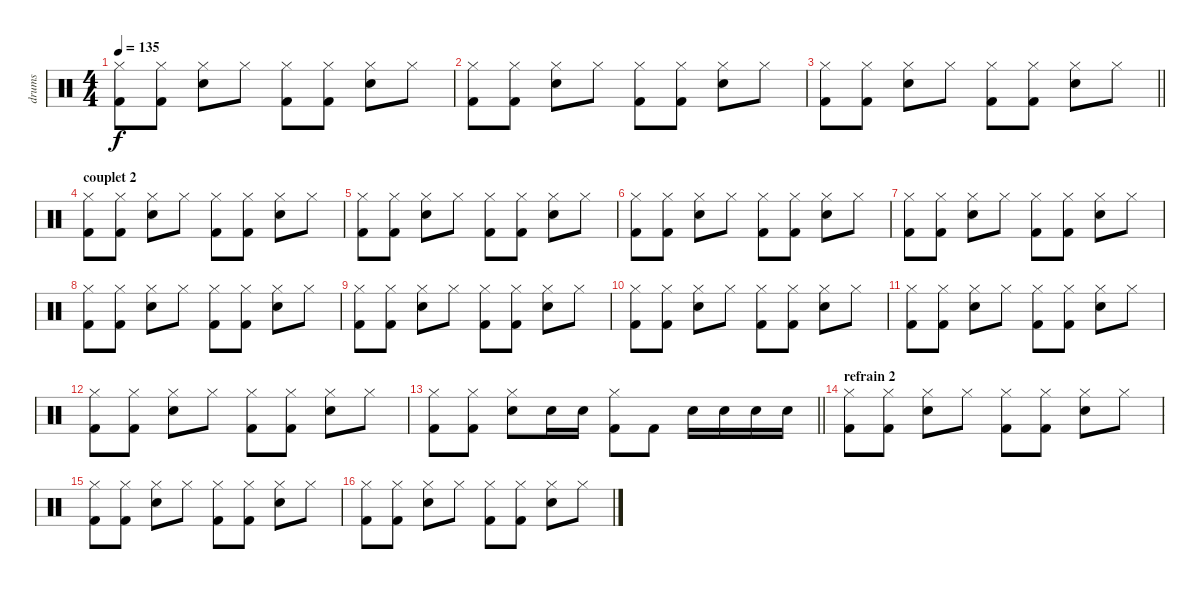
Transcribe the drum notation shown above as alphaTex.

\track ("drums" "drums") {instrument percussion}
\staff {score}
\articulation defaults
\ts (4 4)
\tempo 135
\clef neutral
\ks c
("Hi-Hat (closed)" "Kick (hit) 2").8{dy f} ("Hi-Hat (closed)" "Kick (hit) 2").8 ("Hi-Hat (closed)" "Electric Snare (hit)").8 "Hi-Hat (closed)".8 ("Hi-Hat (closed)" "Kick (hit) 2").8 ("Hi-Hat (closed)" "Kick (hit) 2").8 ("Hi-Hat (closed)" "Electric Snare (hit)").8 "Hi-Hat (closed)".8 |
("Hi-Hat (closed)" "Kick (hit) 2").8 ("Hi-Hat (closed)" "Kick (hit) 2").8 ("Hi-Hat (closed)" "Electric Snare (hit)").8 "Hi-Hat (closed)".8 ("Hi-Hat (closed)" "Kick (hit) 2").8 ("Hi-Hat (closed)" "Kick (hit) 2").8 ("Hi-Hat (closed)" "Electric Snare (hit)").8 "Hi-Hat (closed)".8 |
\barLineRight lightlight
("Hi-Hat (closed)" "Kick (hit) 2").8 ("Hi-Hat (closed)" "Kick (hit) 2").8 ("Hi-Hat (closed)" "Electric Snare (hit)").8 "Hi-Hat (closed)".8 ("Hi-Hat (closed)" "Kick (hit) 2").8 ("Hi-Hat (closed)" "Kick (hit) 2").8 ("Hi-Hat (closed)" "Electric Snare (hit)").8 "Hi-Hat (closed)".8 |
\section ("" "couplet 2")
("Hi-Hat (closed)" "Kick (hit) 2").8 ("Hi-Hat (closed)" "Kick (hit) 2").8 ("Hi-Hat (closed)" "Electric Snare (hit)").8 "Hi-Hat (closed)".8 ("Hi-Hat (closed)" "Kick (hit) 2").8 ("Hi-Hat (closed)" "Kick (hit) 2").8 ("Hi-Hat (closed)" "Electric Snare (hit)").8 "Hi-Hat (closed)".8 |
("Hi-Hat (closed)" "Kick (hit) 2").8 ("Hi-Hat (closed)" "Kick (hit) 2").8 ("Hi-Hat (closed)" "Electric Snare (hit)").8 "Hi-Hat (closed)".8 ("Hi-Hat (closed)" "Kick (hit) 2").8 ("Hi-Hat (closed)" "Kick (hit) 2").8 ("Hi-Hat (closed)" "Electric Snare (hit)").8 "Hi-Hat (closed)".8 |
("Hi-Hat (closed)" "Kick (hit) 2").8 ("Hi-Hat (closed)" "Kick (hit) 2").8 ("Hi-Hat (closed)" "Electric Snare (hit)").8 "Hi-Hat (closed)".8 ("Hi-Hat (closed)" "Kick (hit) 2").8 ("Hi-Hat (closed)" "Kick (hit) 2").8 ("Hi-Hat (closed)" "Electric Snare (hit)").8 "Hi-Hat (closed)".8 |
("Hi-Hat (closed)" "Kick (hit) 2").8 ("Hi-Hat (closed)" "Kick (hit) 2").8 ("Hi-Hat (closed)" "Electric Snare (hit)").8 "Hi-Hat (closed)".8 ("Hi-Hat (closed)" "Kick (hit) 2").8 ("Hi-Hat (closed)" "Kick (hit) 2").8 ("Hi-Hat (closed)" "Electric Snare (hit)").8 "Hi-Hat (closed)".8 |
("Hi-Hat (closed)" "Kick (hit) 2").8 ("Hi-Hat (closed)" "Kick (hit) 2").8 ("Hi-Hat (closed)" "Electric Snare (hit)").8 "Hi-Hat (closed)".8 ("Hi-Hat (closed)" "Kick (hit) 2").8 ("Hi-Hat (closed)" "Kick (hit) 2").8 ("Hi-Hat (closed)" "Electric Snare (hit)").8 "Hi-Hat (closed)".8 |
("Hi-Hat (closed)" "Kick (hit) 2").8 ("Hi-Hat (closed)" "Kick (hit) 2").8 ("Hi-Hat (closed)" "Electric Snare (hit)").8 "Hi-Hat (closed)".8 ("Hi-Hat (closed)" "Kick (hit) 2").8 ("Hi-Hat (closed)" "Kick (hit) 2").8 ("Hi-Hat (closed)" "Electric Snare (hit)").8 "Hi-Hat (closed)".8 |
("Hi-Hat (closed)" "Kick (hit) 2").8 ("Hi-Hat (closed)" "Kick (hit) 2").8 ("Hi-Hat (closed)" "Electric Snare (hit)").8 "Hi-Hat (closed)".8 ("Hi-Hat (closed)" "Kick (hit) 2").8 ("Hi-Hat (closed)" "Kick (hit) 2").8 ("Hi-Hat (closed)" "Electric Snare (hit)").8 "Hi-Hat (closed)".8 |
("Hi-Hat (closed)" "Kick (hit) 2").8 ("Hi-Hat (closed)" "Kick (hit) 2").8 ("Hi-Hat (closed)" "Electric Snare (hit)").8 "Hi-Hat (closed)".8 ("Hi-Hat (closed)" "Kick (hit) 2").8 ("Hi-Hat (closed)" "Kick (hit) 2").8 ("Hi-Hat (closed)" "Electric Snare (hit)").8 "Hi-Hat (closed)".8 |
("Hi-Hat (closed)" "Kick (hit) 2").8 ("Hi-Hat (closed)" "Kick (hit) 2").8 ("Hi-Hat (closed)" "Electric Snare (hit)").8 "Hi-Hat (closed)".8 ("Hi-Hat (closed)" "Kick (hit) 2").8 ("Hi-Hat (closed)" "Kick (hit) 2").8 ("Hi-Hat (closed)" "Electric Snare (hit)").8 "Hi-Hat (closed)".8 |
\barLineRight lightlight
("Hi-Hat (closed)" "Kick (hit) 2").8 ("Hi-Hat (closed)" "Kick (hit) 2").8 ("Hi-Hat (closed)" "Electric Snare (hit)").8 "Electric Snare (hit)".16 "Electric Snare (hit)".16 ("Hi-Hat (closed)" "Kick (hit) 2").8 "Kick (hit) 2".8 "Electric Snare (hit)".16 "Electric Snare (hit)".16 "Electric Snare (hit)".16 "Electric Snare (hit)".16 |
\section ("" "refrain 2")
("Hi-Hat (closed)" "Kick (hit) 2").8 ("Hi-Hat (closed)" "Kick (hit) 2").8 ("Hi-Hat (closed)" "Electric Snare (hit)").8 "Hi-Hat (closed)".8 ("Hi-Hat (closed)" "Kick (hit) 2").8 ("Hi-Hat (closed)" "Kick (hit) 2").8 ("Hi-Hat (closed)" "Electric Snare (hit)").8 "Hi-Hat (closed)".8 |
("Hi-Hat (closed)" "Kick (hit) 2").8 ("Hi-Hat (closed)" "Kick (hit) 2").8 ("Hi-Hat (closed)" "Electric Snare (hit)").8 "Hi-Hat (closed)".8 ("Hi-Hat (closed)" "Kick (hit) 2").8 ("Hi-Hat (closed)" "Kick (hit) 2").8 ("Hi-Hat (closed)" "Electric Snare (hit)").8 "Hi-Hat (closed)".8 |
("Hi-Hat (closed)" "Kick (hit) 2").8 ("Hi-Hat (closed)" "Kick (hit) 2").8 ("Hi-Hat (closed)" "Electric Snare (hit)").8 "Hi-Hat (closed)".8 ("Hi-Hat (closed)" "Kick (hit) 2").8 ("Hi-Hat (closed)" "Kick (hit) 2").8 ("Hi-Hat (closed)" "Electric Snare (hit)").8 "Hi-Hat (closed)".8
